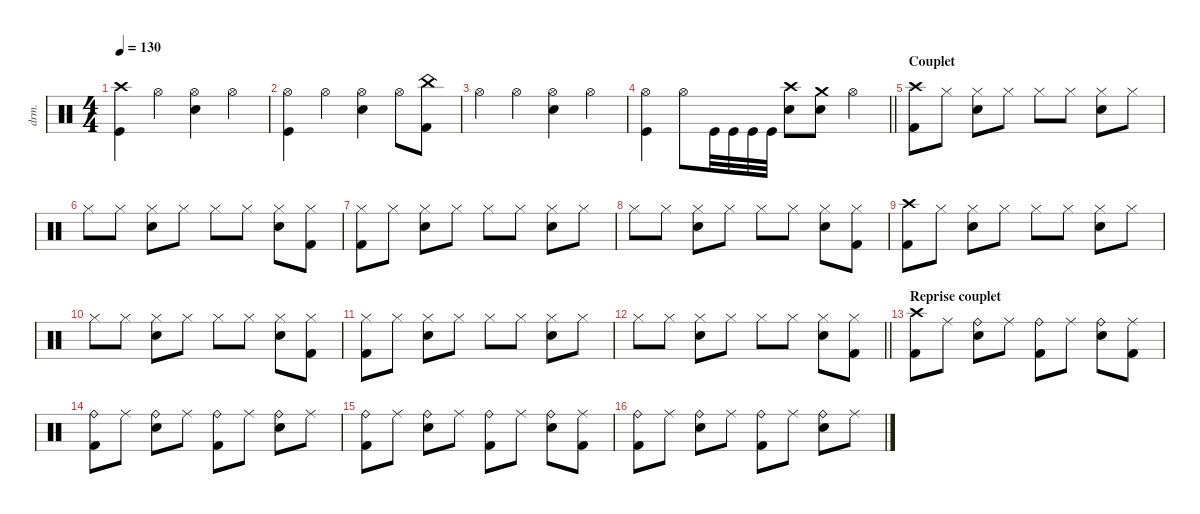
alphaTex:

\defaultSystemsLayout 4
\hideDynamics
\bracketExtendMode nobrackets
\track ("Manouche" "drm.") {solo instrument percussion}
\staff {score}
\articulation defaults
\ts (4 4)
\tempo 130
\clef neutral
\ks c
("Crash high (hit)" "Kick (hit)").4{dy f beam Down} "Hi-Hat (open)".4{beam Down} ("Hi-Hat (open)" "Snare (hit) 2").4{beam Down} "Hi-Hat (open)".4{beam Down} |
("Hi-Hat (open)" "Kick (hit)").4{beam Down} "Hi-Hat (open)".4{beam Down} ("Hi-Hat (open)" "Snare (hit) 2").4{beam Down} "Hi-Hat (open)".8{beam Down} ("China (hit)" "Kick (hit) 2").8{beam Down} |
"Hi-Hat (open)".4{beam Down} "Hi-Hat (open)".4{beam Down} ("Hi-Hat (open)" "Snare (hit) 2").4{beam Down} "Hi-Hat (open)".4{beam Down} |
\barLineRight lightlight
("Hi-Hat (open)" "Kick (hit)").4{beam Down} "Hi-Hat (open)".8{beam Down} "Kick (hit)".32{beam Down} "Kick (hit)".32{beam Down} "Kick (hit)".32{beam Down} "Kick (hit)".32{beam Down} ("Snare (hit) 2" "Crash high (hit)").8{beam Down} ("Crash medium (hit)" "Snare (hit) 2").8{beam Down} "Hi-Hat (open)".4{beam Down} |
\section ("" "Couplet")
("Crash high (hit)" "Kick (hit) 2").8{beam Down} "Hi-Hat (closed)".8{dy mp beam Down} ("Hi-Hat (closed)" "Snare (hit) 2").8{dy f beam Down} "Hi-Hat (closed)".8{dy mp beam Down} "Hi-Hat (closed)".8{dy f beam Down} "Hi-Hat (closed)".8{dy mp beam Down} ("Hi-Hat (closed)" "Snare (hit) 2").8{dy f beam Down} "Hi-Hat (closed)".8{dy mp beam Down} |
"Hi-Hat (closed)".8{dy f beam Down} "Hi-Hat (closed)".8{dy mp beam Down} ("Hi-Hat (closed)" "Snare (hit) 2").8{dy f beam Down} "Hi-Hat (closed)".8{dy mp beam Down} "Hi-Hat (closed)".8{dy f beam Down} "Hi-Hat (closed)".8{dy mp beam Down} ("Hi-Hat (closed)" "Snare (hit) 2").8{dy f beam Down} ("Hi-Hat (closed)" "Kick (hit) 2").8{dy mp beam Down} |
("Hi-Hat (closed)" "Kick (hit) 2").8{beam Down} "Hi-Hat (closed)".8{beam Down} ("Hi-Hat (closed)" "Snare (hit) 2").8{dy f beam Down} "Hi-Hat (closed)".8{dy mp beam Down} "Hi-Hat (closed)".8{dy f beam Down} "Hi-Hat (closed)".8{dy mp beam Down} ("Hi-Hat (closed)" "Snare (hit) 2").8{dy f beam Down} "Hi-Hat (closed)".8{dy mp beam Down} |
"Hi-Hat (closed)".8{dy f beam Down} "Hi-Hat (closed)".8{dy mp beam Down} ("Hi-Hat (closed)" "Snare (hit) 2").8{dy f beam Down} "Hi-Hat (closed)".8{dy mp beam Down} "Hi-Hat (closed)".8{dy f beam Down} "Hi-Hat (closed)".8{dy mp beam Down} ("Hi-Hat (closed)" "Snare (hit) 2").8{dy f beam Down} ("Hi-Hat (closed)" "Kick (hit) 2").8{dy mp beam Down} |
("Crash high (hit)" "Kick (hit) 2").8{dy f beam Down} "Hi-Hat (closed)".8{dy mp beam Down} ("Hi-Hat (closed)" "Snare (hit) 2").8{dy f beam Down} "Hi-Hat (closed)".8{dy mp beam Down} "Hi-Hat (closed)".8{dy f beam Down} "Hi-Hat (closed)".8{dy mp beam Down} ("Hi-Hat (closed)" "Snare (hit) 2").8{dy f beam Down} "Hi-Hat (closed)".8{dy mp beam Down} |
"Hi-Hat (closed)".8{dy f beam Down} "Hi-Hat (closed)".8{dy mp beam Down} ("Hi-Hat (closed)" "Snare (hit) 2").8{dy f beam Down} "Hi-Hat (closed)".8{dy mp beam Down} "Hi-Hat (closed)".8{dy f beam Down} "Hi-Hat (closed)".8{dy mp beam Down} ("Hi-Hat (closed)" "Snare (hit) 2").8{dy f beam Down} ("Hi-Hat (closed)" "Kick (hit) 2").8{dy mp beam Down} |
("Hi-Hat (closed)" "Kick (hit) 2").8{beam Down} "Hi-Hat (closed)".8{beam Down} ("Hi-Hat (closed)" "Snare (hit) 2").8{dy f beam Down} "Hi-Hat (closed)".8{dy mp beam Down} "Hi-Hat (closed)".8{dy f beam Down} "Hi-Hat (closed)".8{dy mp beam Down} ("Hi-Hat (closed)" "Snare (hit) 2").8{dy f beam Down} "Hi-Hat (closed)".8{dy mp beam Down} |
\barLineRight lightlight "Hi-Hat (closed)".8{dy f beam Down} "Hi-Hat (closed)".8{dy mp beam Down}
("Hi-Hat (closed)" "Snare (hit) 2").8{dy f beam Down} "Hi-Hat (closed)".8{dy mp beam Down} "Hi-Hat (closed)".8{dy f beam Down} "Hi-Hat (closed)".8{dy mp beam Down} ("Hi-Hat (closed)" "Snare (hit) 2").8{dy f beam Down} ("Hi-Hat (closed)" "Kick (hit) 2").8{dy mp beam Down} |
\section ("" "Reprise couplet")
("Crash high (hit)" "Kick (hit) 2").8{dy f beam Down} "Ride (middle)".8{dy mf beam Down} ("Ride (bell)" "Snare (hit) 2").8{dy f beam Down} "Ride (middle)".8{dy mf beam Down} ("Ride (bell)" "Kick (hit) 2").8{dy f beam Down} "Ride (middle)".8{dy mf beam Down} ("Ride (bell)" "Snare (hit) 2").8{dy f beam Down} ("Ride (middle)" "Kick (hit) 2").8{dy mf beam Down} |
("Ride (bell)" "Kick (hit) 2").8{dy f beam Down} "Ride (middle)".8{dy mf beam Down} ("Ride (bell)" "Snare (hit) 2").8{dy f beam Down} "Ride (middle)".8{dy mf beam Down} ("Ride (bell)" "Kick (hit) 2").8{dy f beam Down} "Ride (middle)".8{dy mf beam Down} ("Ride (bell)" "Snare (hit) 2").8{dy f beam Down} "Ride (middle)".8{dy mf beam Down} |
("Ride (bell)" "Kick (hit) 2").8{dy f beam Down} "Ride (middle)".8{dy mf beam Down} ("Ride (bell)" "Snare (hit) 2").8{dy f beam Down} "Ride (middle)".8{dy mf beam Down} ("Ride (bell)" "Kick (hit) 2").8{dy f beam Down} "Ride (middle)".8{dy mf beam Down} ("Ride (bell)" "Snare (hit) 2").8{dy f beam Down} ("Ride (middle)" "Kick (hit) 2").8{dy mf beam Down} |
("Ride (bell)" "Kick (hit) 2").8{dy f beam Down} "Ride (middle)".8{dy mf beam Down} ("Ride (bell)" "Snare (hit) 2").8{dy f beam Down} "Ride (middle)".8{dy mf beam Down} ("Ride (bell)" "Kick (hit) 2").8{dy f beam Down} "Ride (middle)".8{dy mf beam Down} ("Ride (bell)" "Snare (hit) 2").8{dy f beam Down} "Ride (middle)".8{dy mf beam Down}
